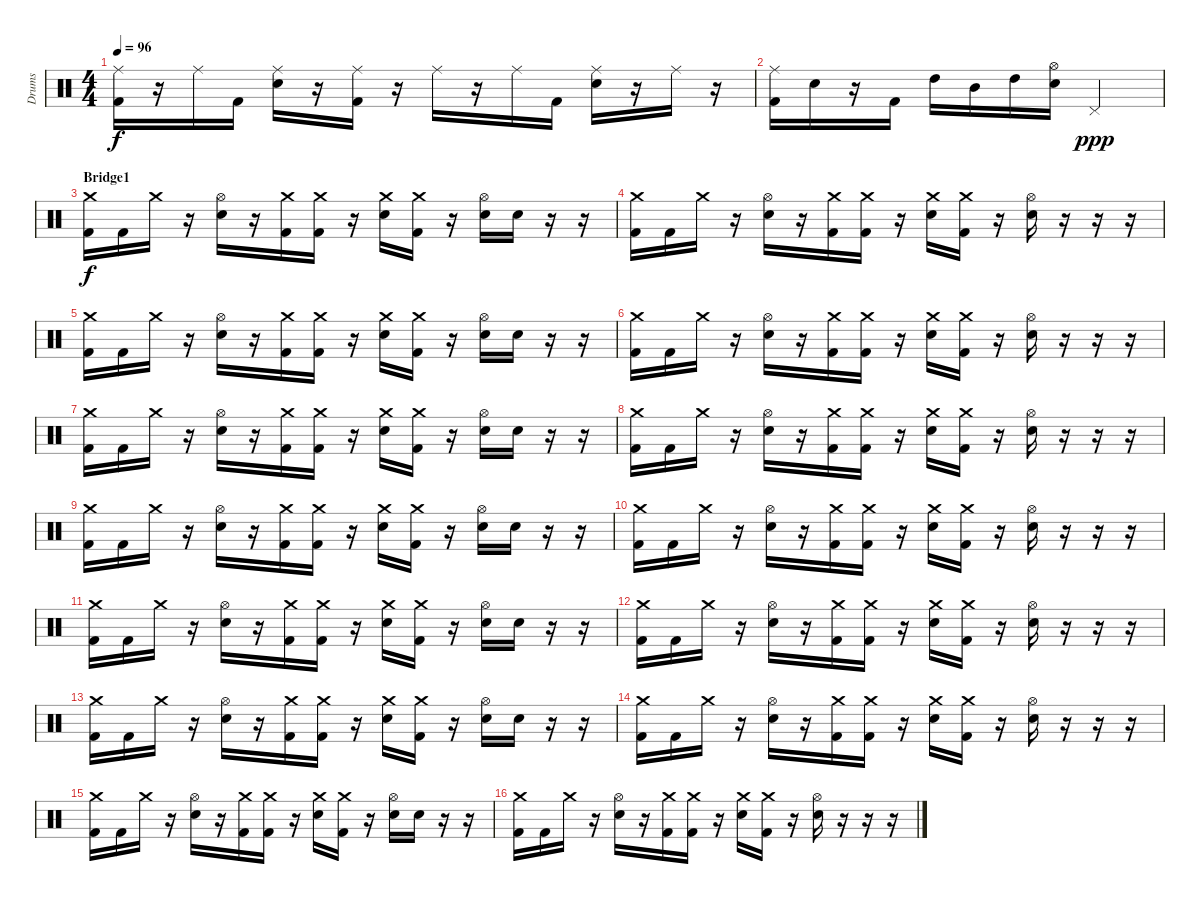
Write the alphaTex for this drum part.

\track ("Drums" "Drums") {instrument percussion}
\staff {score}
\articulation defaults
\ts (4 4)
\tempo 96
\clef neutral
\ks c
("Ride (middle)" "Kick (hit) 2").16{dy f} r.16 "Ride (middle)".16 "Kick (hit) 2".16 ("Ride (middle)" "Electric Snare (hit)").16 r.16 ("Ride (middle)" "Kick (hit) 2").16 r.16 "Ride (middle)".16 r.16 "Ride (middle)".16 "Kick (hit) 2".16 ("Ride (middle)" "Electric Snare (hit)").16 r.16 "Ride (middle)".16 r.16 |
("Ride (middle)" "Kick (hit) 2").16 "Electric Snare (hit)".16 r.16 "Kick (hit) 2".16 "High Tom (hit)".16 "Mid Tom (hit)".16 "High Tom (hit)".16 ("Hi-Hat (open)" "Electric Snare (hit)").16 "Pedal Hi-Hat (hit)".2{dy ppp} |
\section ("" "Bridge1")
("Crash medium (hit)" "Kick (hit) 2").16{dy f} "Kick (hit) 2".16 "Crash medium (hit)".16 r.16 ("Hi-Hat (open)" "Electric Snare (hit)").16 r.16 ("Crash medium (hit)" "Kick (hit) 2").16 ("Crash medium (hit)" "Kick (hit) 2").16 r.16 ("Crash medium (hit)" "Electric Snare (hit)").16 ("Crash medium (hit)" "Kick (hit) 2").16 r.16 ("Hi-Hat (open)" "Electric Snare (hit)").16 "Electric Snare (hit)".16 r.16 r.16 |
("Crash medium (hit)" "Kick (hit) 2").16 "Kick (hit) 2".16 "Crash medium (hit)".16 r.16 ("Hi-Hat (open)" "Electric Snare (hit)").16 r.16 ("Crash medium (hit)" "Kick (hit) 2").16 ("Crash medium (hit)" "Kick (hit) 2").16 r.16 ("Crash medium (hit)" "Electric Snare (hit)").16 ("Crash medium (hit)" "Kick (hit) 2").16 r.16 ("Hi-Hat (open)" "Electric Snare (hit)").16 r.16 r.16 r.16 |
("Crash medium (hit)" "Kick (hit) 2").16 "Kick (hit) 2".16 "Crash medium (hit)".16 r.16 ("Hi-Hat (open)" "Electric Snare (hit)").16 r.16 ("Crash medium (hit)" "Kick (hit) 2").16 ("Crash medium (hit)" "Kick (hit) 2").16 r.16 ("Crash medium (hit)" "Electric Snare (hit)").16 ("Crash medium (hit)" "Kick (hit) 2").16 r.16 ("Hi-Hat (open)" "Electric Snare (hit)").16 "Electric Snare (hit)".16 r.16 r.16 |
("Crash medium (hit)" "Kick (hit) 2").16 "Kick (hit) 2".16 "Crash medium (hit)".16 r.16 ("Hi-Hat (open)" "Electric Snare (hit)").16 r.16 ("Crash medium (hit)" "Kick (hit) 2").16 ("Crash medium (hit)" "Kick (hit) 2").16 r.16 ("Crash medium (hit)" "Electric Snare (hit)").16 ("Crash medium (hit)" "Kick (hit) 2").16 r.16 ("Hi-Hat (open)" "Electric Snare (hit)").16 r.16 r.16 r.16 |
("Crash medium (hit)" "Kick (hit) 2").16 "Kick (hit) 2".16 "Crash medium (hit)".16 r.16 ("Hi-Hat (open)" "Electric Snare (hit)").16 r.16 ("Crash medium (hit)" "Kick (hit) 2").16 ("Crash medium (hit)" "Kick (hit) 2").16 r.16 ("Crash medium (hit)" "Electric Snare (hit)").16 ("Crash medium (hit)" "Kick (hit) 2").16 r.16 ("Hi-Hat (open)" "Electric Snare (hit)").16 "Electric Snare (hit)".16 r.16 r.16 |
("Crash medium (hit)" "Kick (hit) 2").16 "Kick (hit) 2".16 "Crash medium (hit)".16 r.16 ("Hi-Hat (open)" "Electric Snare (hit)").16 r.16 ("Crash medium (hit)" "Kick (hit) 2").16 ("Crash medium (hit)" "Kick (hit) 2").16 r.16 ("Crash medium (hit)" "Electric Snare (hit)").16 ("Crash medium (hit)" "Kick (hit) 2").16 r.16 ("Hi-Hat (open)" "Electric Snare (hit)").16 r.16 r.16 r.16 |
("Crash medium (hit)" "Kick (hit) 2").16 "Kick (hit) 2".16 "Crash medium (hit)".16 r.16 ("Hi-Hat (open)" "Electric Snare (hit)").16 r.16 ("Crash medium (hit)" "Kick (hit) 2").16 ("Crash medium (hit)" "Kick (hit) 2").16 r.16 ("Crash medium (hit)" "Electric Snare (hit)").16 ("Crash medium (hit)" "Kick (hit) 2").16 r.16 ("Hi-Hat (open)" "Electric Snare (hit)").16 "Electric Snare (hit)".16 r.16 r.16 |
("Crash medium (hit)" "Kick (hit) 2").16 "Kick (hit) 2".16 "Crash medium (hit)".16 r.16 ("Hi-Hat (open)" "Electric Snare (hit)").16 r.16 ("Crash medium (hit)" "Kick (hit) 2").16 ("Crash medium (hit)" "Kick (hit) 2").16 r.16 ("Crash medium (hit)" "Electric Snare (hit)").16 ("Crash medium (hit)" "Kick (hit) 2").16 r.16 ("Hi-Hat (open)" "Electric Snare (hit)").16 r.16 r.16 r.16 |
("Crash medium (hit)" "Kick (hit) 2").16 "Kick (hit) 2".16 "Crash medium (hit)".16 r.16 ("Hi-Hat (open)" "Electric Snare (hit)").16 r.16 ("Crash medium (hit)" "Kick (hit) 2").16 ("Crash medium (hit)" "Kick (hit) 2").16 r.16 ("Crash medium (hit)" "Electric Snare (hit)").16 ("Crash medium (hit)" "Kick (hit) 2").16 r.16 ("Hi-Hat (open)" "Electric Snare (hit)").16 "Electric Snare (hit)".16 r.16 r.16 |
("Crash medium (hit)" "Kick (hit) 2").16 "Kick (hit) 2".16 "Crash medium (hit)".16 r.16 ("Hi-Hat (open)" "Electric Snare (hit)").16 r.16 ("Crash medium (hit)" "Kick (hit) 2").16 ("Crash medium (hit)" "Kick (hit) 2").16 r.16 ("Crash medium (hit)" "Electric Snare (hit)").16 ("Crash medium (hit)" "Kick (hit) 2").16 r.16 ("Hi-Hat (open)" "Electric Snare (hit)").16 r.16 r.16 r.16 |
("Crash medium (hit)" "Kick (hit) 2").16 "Kick (hit) 2".16 "Crash medium (hit)".16 r.16 ("Hi-Hat (open)" "Electric Snare (hit)").16 r.16 ("Crash medium (hit)" "Kick (hit) 2").16 ("Crash medium (hit)" "Kick (hit) 2").16 r.16 ("Crash medium (hit)" "Electric Snare (hit)").16 ("Crash medium (hit)" "Kick (hit) 2").16 r.16 ("Hi-Hat (open)" "Electric Snare (hit)").16 "Electric Snare (hit)".16 r.16 r.16 |
("Crash medium (hit)" "Kick (hit) 2").16 "Kick (hit) 2".16 "Crash medium (hit)".16 r.16 ("Hi-Hat (open)" "Electric Snare (hit)").16 r.16 ("Crash medium (hit)" "Kick (hit) 2").16 ("Crash medium (hit)" "Kick (hit) 2").16 r.16 ("Crash medium (hit)" "Electric Snare (hit)").16 ("Crash medium (hit)" "Kick (hit) 2").16 r.16 ("Hi-Hat (open)" "Electric Snare (hit)").16 r.16 r.16 r.16 |
("Crash medium (hit)" "Kick (hit) 2").16 "Kick (hit) 2".16 "Crash medium (hit)".16 r.16 ("Hi-Hat (open)" "Electric Snare (hit)").16 r.16 ("Crash medium (hit)" "Kick (hit) 2").16 ("Crash medium (hit)" "Kick (hit) 2").16 r.16 ("Crash medium (hit)" "Electric Snare (hit)").16 ("Crash medium (hit)" "Kick (hit) 2").16 r.16 ("Hi-Hat (open)" "Electric Snare (hit)").16 "Electric Snare (hit)".16 r.16 r.16 |
("Crash medium (hit)" "Kick (hit) 2").16 "Kick (hit) 2".16 "Crash medium (hit)".16 r.16 ("Hi-Hat (open)" "Electric Snare (hit)").16 r.16 ("Crash medium (hit)" "Kick (hit) 2").16 ("Crash medium (hit)" "Kick (hit) 2").16 r.16 ("Crash medium (hit)" "Electric Snare (hit)").16 ("Crash medium (hit)" "Kick (hit) 2").16 r.16 ("Hi-Hat (open)" "Electric Snare (hit)").16 r.16 r.16 r.16
